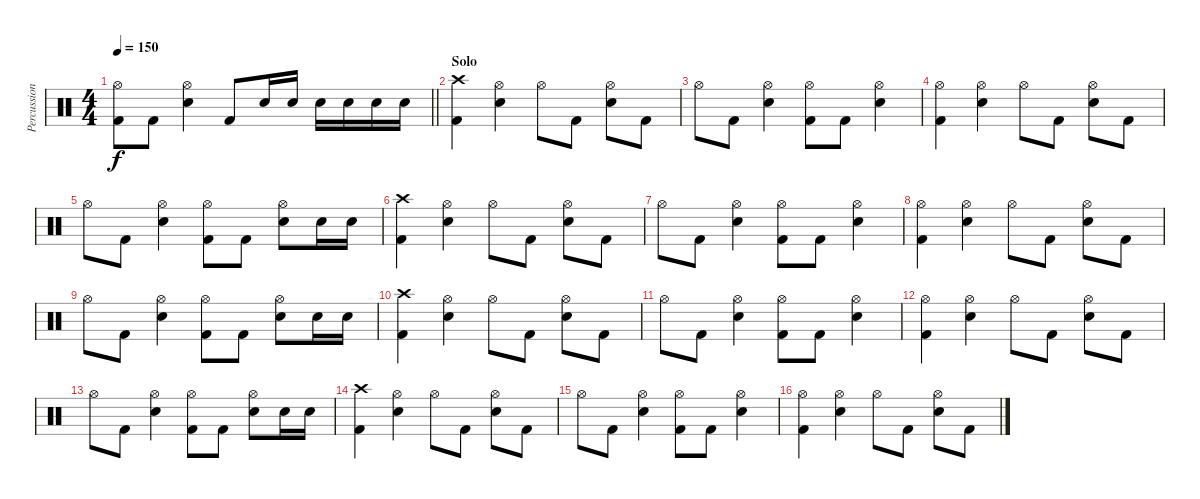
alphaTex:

\track ("Percussion" "Percussion") {instrument percussion}
\staff {score}
\articulation defaults
\ts (4 4)
\tempo 150
\clef neutral
\barLineRight lightlight
\ks c
("Hi-Hat (open)" "Kick (hit) 2").8{dy f} "Kick (hit) 2".8 ("Hi-Hat (open)" "Electric Snare (hit)").4 "Kick (hit) 2".8 "Electric Snare (hit)".16 "Electric Snare (hit)".16 "Electric Snare (hit)".16 "Electric Snare (hit)".16 "Electric Snare (hit)".16 "Electric Snare (hit)".16 |
\section ("" "Solo")
("Crash high (hit)" "Kick (hit) 2").4{volume 13} ("Hi-Hat (open)" "Electric Snare (hit)").4 "Hi-Hat (open)".8 "Kick (hit) 2".8 ("Hi-Hat (open)" "Electric Snare (hit)").8 "Kick (hit) 2".8 |
"Hi-Hat (open)".8 "Kick (hit) 2".8 ("Hi-Hat (open)" "Electric Snare (hit)").4 ("Hi-Hat (open)" "Kick (hit) 2").8 "Kick (hit) 2".8 ("Hi-Hat (open)" "Electric Snare (hit)").4 |
("Hi-Hat (open)" "Kick (hit) 2").4 ("Hi-Hat (open)" "Electric Snare (hit)").4 "Hi-Hat (open)".8 "Kick (hit) 2".8 ("Hi-Hat (open)" "Electric Snare (hit)").8 "Kick (hit) 2".8 |
"Hi-Hat (open)".8 "Kick (hit) 2".8 ("Hi-Hat (open)" "Electric Snare (hit)").4 ("Hi-Hat (open)" "Kick (hit) 2").8 "Kick (hit) 2".8 ("Hi-Hat (open)" "Electric Snare (hit)").8 "Electric Snare (hit)".16 "Electric Snare (hit)".16 |
("Crash high (hit)" "Kick (hit) 2").4 ("Hi-Hat (open)" "Electric Snare (hit)").4 "Hi-Hat (open)".8 "Kick (hit) 2".8 ("Hi-Hat (open)" "Electric Snare (hit)").8 "Kick (hit) 2".8 |
"Hi-Hat (open)".8 "Kick (hit) 2".8 ("Hi-Hat (open)" "Electric Snare (hit)").4 ("Hi-Hat (open)" "Kick (hit) 2").8 "Kick (hit) 2".8 ("Hi-Hat (open)" "Electric Snare (hit)").4 |
("Hi-Hat (open)" "Kick (hit) 2").4 ("Hi-Hat (open)" "Electric Snare (hit)").4 "Hi-Hat (open)".8 "Kick (hit) 2".8 ("Hi-Hat (open)" "Electric Snare (hit)").8 "Kick (hit) 2".8 |
"Hi-Hat (open)".8 "Kick (hit) 2".8 ("Hi-Hat (open)" "Electric Snare (hit)").4 ("Hi-Hat (open)" "Kick (hit) 2").8 "Kick (hit) 2".8 ("Hi-Hat (open)" "Electric Snare (hit)").8 "Electric Snare (hit)".16 "Electric Snare (hit)".16 |
("Crash high (hit)" "Kick (hit) 2").4 ("Hi-Hat (open)" "Electric Snare (hit)").4 "Hi-Hat (open)".8 "Kick (hit) 2".8 ("Hi-Hat (open)" "Electric Snare (hit)").8 "Kick (hit) 2".8 |
"Hi-Hat (open)".8 "Kick (hit) 2".8 ("Hi-Hat (open)" "Electric Snare (hit)").4 ("Hi-Hat (open)" "Kick (hit) 2").8 "Kick (hit) 2".8 ("Hi-Hat (open)" "Electric Snare (hit)").4 |
("Hi-Hat (open)" "Kick (hit) 2").4 ("Hi-Hat (open)" "Electric Snare (hit)").4 "Hi-Hat (open)".8 "Kick (hit) 2".8 ("Hi-Hat (open)" "Electric Snare (hit)").8 "Kick (hit) 2".8 |
"Hi-Hat (open)".8 "Kick (hit) 2".8 ("Hi-Hat (open)" "Electric Snare (hit)").4 ("Hi-Hat (open)" "Kick (hit) 2").8 "Kick (hit) 2".8 ("Hi-Hat (open)" "Electric Snare (hit)").8 "Electric Snare (hit)".16 "Electric Snare (hit)".16 |
("Crash high (hit)" "Kick (hit) 2").4 ("Hi-Hat (open)" "Electric Snare (hit)").4 "Hi-Hat (open)".8 "Kick (hit) 2".8 ("Hi-Hat (open)" "Electric Snare (hit)").8 "Kick (hit) 2".8 |
"Hi-Hat (open)".8 "Kick (hit) 2".8 ("Hi-Hat (open)" "Electric Snare (hit)").4 ("Hi-Hat (open)" "Kick (hit) 2").8 "Kick (hit) 2".8 ("Hi-Hat (open)" "Electric Snare (hit)").4 |
("Hi-Hat (open)" "Kick (hit) 2").4 ("Hi-Hat (open)" "Electric Snare (hit)").4 "Hi-Hat (open)".8 "Kick (hit) 2".8 ("Hi-Hat (open)" "Electric Snare (hit)").8 "Kick (hit) 2".8
